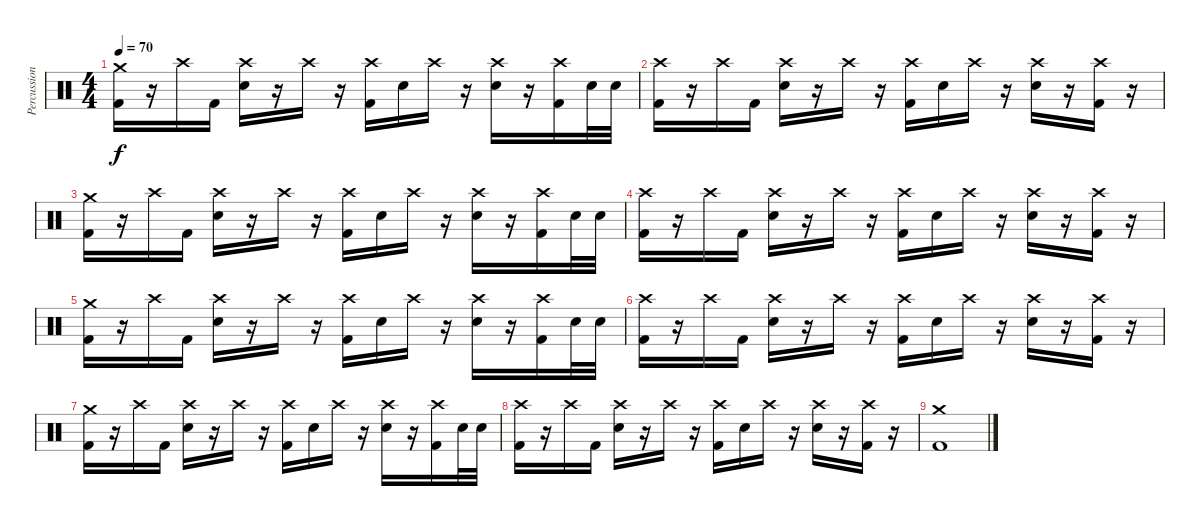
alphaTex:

\track ("Percussions" "Percussion") {instrument percussion}
\staff {score}
\articulation defaults
\ts (4 4)
\tempo 70
\clef neutral
\ks c
("Crash medium (hit)" "Kick (hit) 2").16{dy f} r.16 "Crash high (hit)".16 "Kick (hit) 2".16 ("Crash high (hit)" "Snare (hit) 2").16 r.16 "Crash high (hit)".16 r.16 ("Crash high (hit)" "Kick (hit) 2").16 "Snare (hit) 2".16 "Crash high (hit)".16 r.16 ("Crash high (hit)" "Snare (hit) 2").16 r.16 ("Crash high (hit)" "Kick (hit) 2").16 "Snare (hit) 2".32 "Snare (hit) 2".32 |
("Crash high (hit)" "Kick (hit) 2").16 r.16 "Crash high (hit)".16 "Kick (hit) 2".16 ("Crash high (hit)" "Snare (hit) 2").16 r.16 "Crash high (hit)".16 r.16 ("Crash high (hit)" "Kick (hit) 2").16 "Snare (hit) 2".16 "Crash high (hit)".16 r.16 ("Crash high (hit)" "Snare (hit) 2").16 r.16 ("Crash high (hit)" "Kick (hit) 2").16 r.16 |
("Crash medium (hit)" "Kick (hit) 2").16 r.16 "Crash high (hit)".16 "Kick (hit) 2".16 ("Crash high (hit)" "Snare (hit) 2").16 r.16 "Crash high (hit)".16 r.16 ("Crash high (hit)" "Kick (hit) 2").16 "Snare (hit) 2".16 "Crash high (hit)".16 r.16 ("Crash high (hit)" "Snare (hit) 2").16 r.16 ("Crash high (hit)" "Kick (hit) 2").16 "Snare (hit) 2".32 "Snare (hit) 2".32 |
("Crash high (hit)" "Kick (hit) 2").16 r.16 "Crash high (hit)".16 "Kick (hit) 2".16 ("Crash high (hit)" "Snare (hit) 2").16 r.16 "Crash high (hit)".16 r.16 ("Crash high (hit)" "Kick (hit) 2").16 "Snare (hit) 2".16 "Crash high (hit)".16 r.16 ("Crash high (hit)" "Snare (hit) 2").16 r.16 ("Crash high (hit)" "Kick (hit) 2").16 r.16 |
("Crash medium (hit)" "Kick (hit) 2").16 r.16 "Crash high (hit)".16 "Kick (hit) 2".16 ("Crash high (hit)" "Snare (hit) 2").16 r.16 "Crash high (hit)".16 r.16 ("Crash high (hit)" "Kick (hit) 2").16 "Snare (hit) 2".16 "Crash high (hit)".16 r.16 ("Crash high (hit)" "Snare (hit) 2").16 r.16 ("Crash high (hit)" "Kick (hit) 2").16 "Snare (hit) 2".32 "Snare (hit) 2".32 |
("Crash high (hit)" "Kick (hit) 2").16 r.16 "Crash high (hit)".16 "Kick (hit) 2".16 ("Crash high (hit)" "Snare (hit) 2").16 r.16 "Crash high (hit)".16 r.16 ("Crash high (hit)" "Kick (hit) 2").16 "Snare (hit) 2".16 "Crash high (hit)".16 r.16 ("Crash high (hit)" "Snare (hit) 2").16 r.16 ("Crash high (hit)" "Kick (hit) 2").16 r.16 |
("Crash medium (hit)" "Kick (hit) 2").16 r.16 "Crash high (hit)".16 "Kick (hit) 2".16 ("Crash high (hit)" "Snare (hit) 2").16 r.16 "Crash high (hit)".16 r.16 ("Crash high (hit)" "Kick (hit) 2").16 "Snare (hit) 2".16 "Crash high (hit)".16 r.16 ("Crash high (hit)" "Snare (hit) 2").16 r.16 ("Crash high (hit)" "Kick (hit) 2").16 "Snare (hit) 2".32 "Snare (hit) 2".32 |
("Crash high (hit)" "Kick (hit) 2").16 r.16 "Crash high (hit)".16 "Kick (hit) 2".16 ("Crash high (hit)" "Snare (hit) 2").16 r.16 "Crash high (hit)".16 r.16 ("Crash high (hit)" "Kick (hit) 2").16 "Snare (hit) 2".16 "Crash high (hit)".16 r.16 ("Crash high (hit)" "Snare (hit) 2").16 r.16 ("Crash high (hit)" "Kick (hit) 2").16 r.16 |
("Crash medium (hit)" "Kick (hit) 2").1
